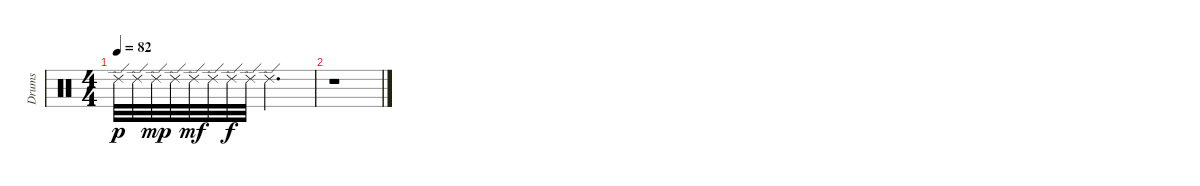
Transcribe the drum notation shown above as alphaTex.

\track ("Drums" "Drums") {instrument percussion}
\staff {score}
\articulation defaults
\ts (4 4)
\tempo 82
\clef neutral
\ks c "Ride (edge) 2".32{dy p} "Ride (edge) 2".32 "Ride (edge) 2".32{dy mp} "Ride (edge) 2".32 "Ride (edge) 2".32{dy mf} "Ride (edge) 2".32 "Ride (edge) 2".32{dy f} "Ride (edge) 2".32 "Ride (edge) 2".2{d}
|
r.1
